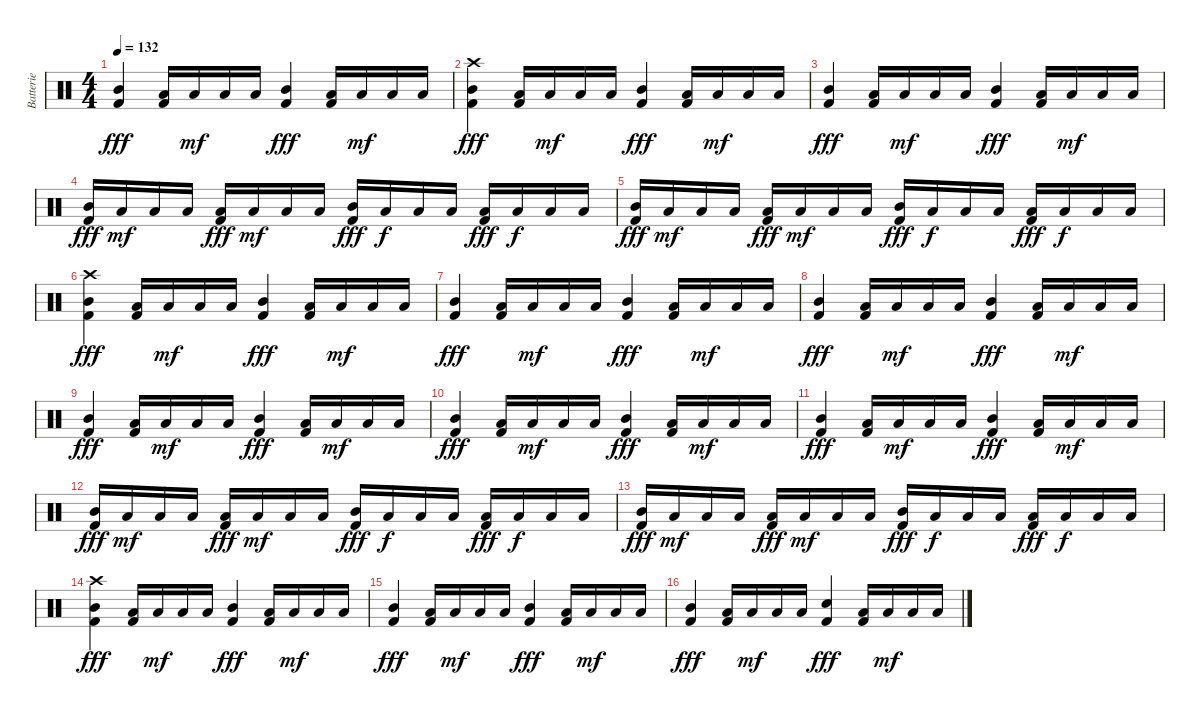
\track ("Batterie" "Batterie") {instrument percussion}
\staff {score}
\articulation defaults
\ts (4 4)
\tempo 132
\clef neutral
\ks c
("Mid Tom (hit)" "Kick (hit) 2").4{dy fff} ("Low Tom (hit)" "Kick (hit) 2").16 "Low Tom (hit)".16{dy mf} "Low Tom (hit)".16 "Low Tom (hit)".16 ("Mid Tom (hit)" "Kick (hit) 2").4{dy fff} ("Low Tom (hit)" "Kick (hit) 2").16 "Low Tom (hit)".16{dy mf} "Low Tom (hit)".16 "Low Tom (hit)".16 |
("Crash high (hit)" "Mid Tom (hit)" "Kick (hit) 2").4{dy fff} ("Low Tom (hit)" "Kick (hit) 2").16 "Low Tom (hit)".16{dy mf} "Low Tom (hit)".16 "Low Tom (hit)".16 ("Mid Tom (hit)" "Kick (hit) 2").4{dy fff} ("Low Tom (hit)" "Kick (hit) 2").16 "Low Tom (hit)".16{dy mf} "Low Tom (hit)".16 "Low Tom (hit)".16 |
("Mid Tom (hit)" "Kick (hit) 2").4{dy fff} ("Low Tom (hit)" "Kick (hit) 2").16 "Low Tom (hit)".16{dy mf} "Low Tom (hit)".16 "Low Tom (hit)".16 ("Mid Tom (hit)" "Kick (hit) 2").4{dy fff} ("Low Tom (hit)" "Kick (hit) 2").16 "Low Tom (hit)".16{dy mf} "Low Tom (hit)".16 "Low Tom (hit)".16 |
("Mid Tom (hit)" "Kick (hit) 2").16{dy fff} "Low Tom (hit)".16{dy mf} "Low Tom (hit)".16 "Low Tom (hit)".16 ("Low Tom (hit)" "Kick (hit) 2").16{dy fff} "Low Tom (hit)".16{dy mf} "Low Tom (hit)".16 "Low Tom (hit)".16 ("Mid Tom (hit)" "Kick (hit) 2").16{dy fff} "Low Tom (hit)".16{dy f} "Low Tom (hit)".16 "Low Tom (hit)".16 ("Low Tom (hit)" "Kick (hit) 2").16{dy fff} "Low Tom (hit)".16{dy f} "Low Tom (hit)".16 "Low Tom (hit)".16 |
("Mid Tom (hit)" "Kick (hit) 2").16{dy fff} "Low Tom (hit)".16{dy mf} "Low Tom (hit)".16 "Low Tom (hit)".16 ("Low Tom (hit)" "Kick (hit) 2").16{dy fff} "Low Tom (hit)".16{dy mf} "Low Tom (hit)".16 "Low Tom (hit)".16 ("Mid Tom (hit)" "Kick (hit) 2").16{dy fff} "Low Tom (hit)".16{dy f} "Low Tom (hit)".16 "Low Tom (hit)".16 ("Low Tom (hit)" "Kick (hit) 2").16{dy fff} "Low Tom (hit)".16{dy f} "Low Tom (hit)".16 "Low Tom (hit)".16 |
("Crash high (hit)" "Mid Tom (hit)" "Kick (hit) 2").4{dy fff} ("Low Tom (hit)" "Kick (hit) 2").16 "Low Tom (hit)".16{dy mf} "Low Tom (hit)".16 "Low Tom (hit)".16 ("Mid Tom (hit)" "Kick (hit) 2").4{dy fff} ("Low Tom (hit)" "Kick (hit) 2").16 "Low Tom (hit)".16{dy mf} "Low Tom (hit)".16 "Low Tom (hit)".16 |
("Mid Tom (hit)" "Kick (hit) 2").4{dy fff} ("Low Tom (hit)" "Kick (hit) 2").16 "Low Tom (hit)".16{dy mf} "Low Tom (hit)".16 "Low Tom (hit)".16 ("Mid Tom (hit)" "Kick (hit) 2").4{dy fff} ("Low Tom (hit)" "Kick (hit) 2").16 "Low Tom (hit)".16{dy mf} "Low Tom (hit)".16 "Low Tom (hit)".16 |
("Mid Tom (hit)" "Kick (hit) 2").4{dy fff} ("Low Tom (hit)" "Kick (hit) 2").16 "Low Tom (hit)".16{dy mf} "Low Tom (hit)".16 "Low Tom (hit)".16 ("Mid Tom (hit)" "Kick (hit) 2").4{dy fff} ("Low Tom (hit)" "Kick (hit) 2").16 "Low Tom (hit)".16{dy mf} "Low Tom (hit)".16 "Low Tom (hit)".16 |
("Mid Tom (hit)" "Kick (hit) 2").4{dy fff} ("Low Tom (hit)" "Kick (hit) 2").16 "Low Tom (hit)".16{dy mf} "Low Tom (hit)".16 "Low Tom (hit)".16 ("Mid Tom (hit)" "Kick (hit) 2").4{dy fff} ("Low Tom (hit)" "Kick (hit) 2").16 "Low Tom (hit)".16{dy mf} "Low Tom (hit)".16 "Low Tom (hit)".16 |
("Mid Tom (hit)" "Kick (hit) 2").4{dy fff} ("Low Tom (hit)" "Kick (hit) 2").16 "Low Tom (hit)".16{dy mf} "Low Tom (hit)".16 "Low Tom (hit)".16 ("Mid Tom (hit)" "Kick (hit) 2").4{dy fff} ("Low Tom (hit)" "Kick (hit) 2").16 "Low Tom (hit)".16{dy mf} "Low Tom (hit)".16 "Low Tom (hit)".16 |
("Mid Tom (hit)" "Kick (hit) 2").4{dy fff} ("Low Tom (hit)" "Kick (hit) 2").16 "Low Tom (hit)".16{dy mf} "Low Tom (hit)".16 "Low Tom (hit)".16 ("Mid Tom (hit)" "Kick (hit) 2").4{dy fff} ("Low Tom (hit)" "Kick (hit) 2").16 "Low Tom (hit)".16{dy mf} "Low Tom (hit)".16 "Low Tom (hit)".16 |
("Mid Tom (hit)" "Kick (hit) 2").16{dy fff} "Low Tom (hit)".16{dy mf} "Low Tom (hit)".16 "Low Tom (hit)".16 ("Low Tom (hit)" "Kick (hit) 2").16{dy fff} "Low Tom (hit)".16{dy mf} "Low Tom (hit)".16 "Low Tom (hit)".16 ("Mid Tom (hit)" "Kick (hit) 2").16{dy fff} "Low Tom (hit)".16{dy f} "Low Tom (hit)".16 "Low Tom (hit)".16 ("Low Tom (hit)" "Kick (hit) 2").16{dy fff} "Low Tom (hit)".16{dy f} "Low Tom (hit)".16 "Low Tom (hit)".16 |
("Mid Tom (hit)" "Kick (hit) 2").16{dy fff} "Low Tom (hit)".16{dy mf} "Low Tom (hit)".16 "Low Tom (hit)".16 ("Low Tom (hit)" "Kick (hit) 2").16{dy fff} "Low Tom (hit)".16{dy mf} "Low Tom (hit)".16 "Low Tom (hit)".16 ("Mid Tom (hit)" "Kick (hit) 2").16{dy fff} "Low Tom (hit)".16{dy f} "Low Tom (hit)".16 "Low Tom (hit)".16 ("Low Tom (hit)" "Kick (hit) 2").16{dy fff} "Low Tom (hit)".16{dy f} "Low Tom (hit)".16 "Low Tom (hit)".16 |
("Crash high (hit)" "Mid Tom (hit)" "Kick (hit) 2").4{dy fff} ("Low Tom (hit)" "Kick (hit) 2").16 "Low Tom (hit)".16{dy mf} "Low Tom (hit)".16 "Low Tom (hit)".16 ("Mid Tom (hit)" "Kick (hit) 2").4{dy fff} ("Low Tom (hit)" "Kick (hit) 2").16 "Low Tom (hit)".16{dy mf} "Low Tom (hit)".16 "Low Tom (hit)".16 |
("Mid Tom (hit)" "Kick (hit) 2").4{dy fff} ("Low Tom (hit)" "Kick (hit) 2").16 "Low Tom (hit)".16{dy mf} "Low Tom (hit)".16 "Low Tom (hit)".16 ("Mid Tom (hit)" "Kick (hit) 2").4{dy fff} ("Low Tom (hit)" "Kick (hit) 2").16 "Low Tom (hit)".16{dy mf} "Low Tom (hit)".16 "Low Tom (hit)".16 |
("Mid Tom (hit)" "Kick (hit) 2").4{dy fff} ("Low Tom (hit)" "Kick (hit) 2").16 "Low Tom (hit)".16{dy mf} "Low Tom (hit)".16 "Low Tom (hit)".16 ("Electric Snare (hit)" "Kick (hit) 2").4{dy fff} ("Low Tom (hit)" "Kick (hit) 2").16 "Low Tom (hit)".16{dy mf} "Low Tom (hit)".16 "Low Tom (hit)".16
